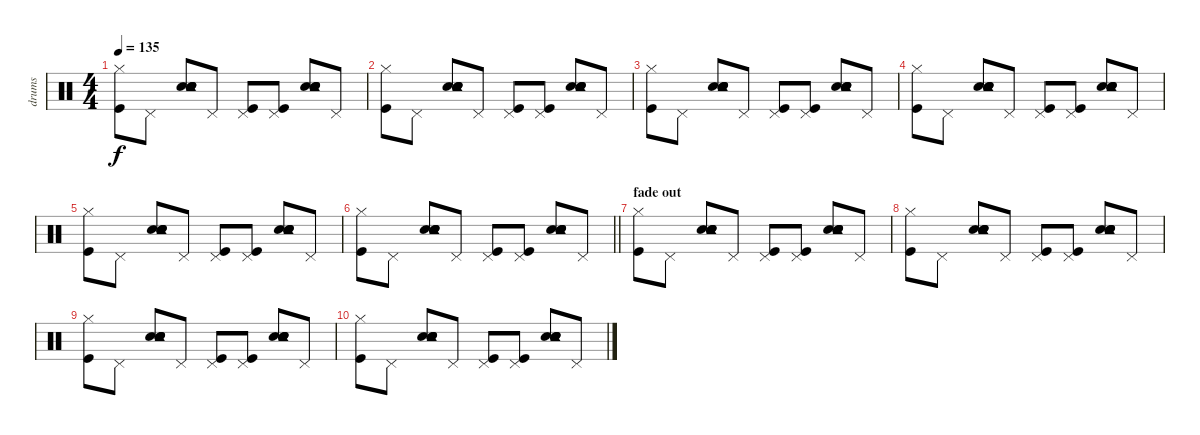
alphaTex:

\track ("drums" "drums") {instrument percussion}
\staff {score}
\articulation defaults
\ts (4 4)
\tempo 135
\clef neutral
\ks c
("Kick (hit)" "Hi-Hat (closed)").8{dy f} "Pedal Hi-Hat (hit)".8 ("Snare (hit) 2" "Snare (hit) 2" "Electric Snare (hit)" "Electric Snare (hit)" "Tambourine (hit)").8 "Pedal Hi-Hat (hit)".8 ("Kick (hit)" "Pedal Hi-Hat (hit)").8 ("Kick (hit)" "Pedal Hi-Hat (hit)").8 ("Snare (hit) 2" "Snare (hit) 2" "Electric Snare (hit)" "Electric Snare (hit)" "Tambourine (hit)").8 "Pedal Hi-Hat (hit)".8 |
("Kick (hit)" "Hi-Hat (closed)").8 "Pedal Hi-Hat (hit)".8 ("Snare (hit) 2" "Snare (hit) 2" "Electric Snare (hit)" "Electric Snare (hit)" "Tambourine (hit)").8 "Pedal Hi-Hat (hit)".8 ("Kick (hit)" "Pedal Hi-Hat (hit)").8 ("Kick (hit)" "Pedal Hi-Hat (hit)").8 ("Snare (hit) 2" "Snare (hit) 2" "Electric Snare (hit)" "Electric Snare (hit)" "Tambourine (hit)").8 "Pedal Hi-Hat (hit)".8 |
("Kick (hit)" "Hi-Hat (closed)").8 "Pedal Hi-Hat (hit)".8 ("Snare (hit) 2" "Snare (hit) 2" "Electric Snare (hit)" "Electric Snare (hit)" "Tambourine (hit)").8 "Pedal Hi-Hat (hit)".8 ("Kick (hit)" "Pedal Hi-Hat (hit)").8 ("Kick (hit)" "Pedal Hi-Hat (hit)").8 ("Snare (hit) 2" "Snare (hit) 2" "Electric Snare (hit)" "Electric Snare (hit)" "Tambourine (hit)").8 "Pedal Hi-Hat (hit)".8 |
("Kick (hit)" "Hi-Hat (closed)").8 "Pedal Hi-Hat (hit)".8 ("Snare (hit) 2" "Snare (hit) 2" "Electric Snare (hit)" "Electric Snare (hit)" "Tambourine (hit)").8 "Pedal Hi-Hat (hit)".8 ("Kick (hit)" "Pedal Hi-Hat (hit)").8 ("Kick (hit)" "Pedal Hi-Hat (hit)").8 ("Snare (hit) 2" "Snare (hit) 2" "Electric Snare (hit)" "Electric Snare (hit)" "Tambourine (hit)").8 "Pedal Hi-Hat (hit)".8 |
("Kick (hit)" "Hi-Hat (closed)").8 "Pedal Hi-Hat (hit)".8 ("Snare (hit) 2" "Snare (hit) 2" "Electric Snare (hit)" "Electric Snare (hit)" "Tambourine (hit)").8 "Pedal Hi-Hat (hit)".8 ("Kick (hit)" "Pedal Hi-Hat (hit)").8 ("Kick (hit)" "Pedal Hi-Hat (hit)").8 ("Snare (hit) 2" "Snare (hit) 2" "Electric Snare (hit)" "Electric Snare (hit)" "Tambourine (hit)").8 "Pedal Hi-Hat (hit)".8 |
\barLineRight lightlight
("Kick (hit)" "Hi-Hat (closed)").8 "Pedal Hi-Hat (hit)".8 ("Snare (hit) 2" "Snare (hit) 2" "Electric Snare (hit)" "Electric Snare (hit)" "Tambourine (hit)").8 "Pedal Hi-Hat (hit)".8 ("Kick (hit)" "Pedal Hi-Hat (hit)").8 ("Kick (hit)" "Pedal Hi-Hat (hit)").8 ("Snare (hit) 2" "Snare (hit) 2" "Electric Snare (hit)" "Electric Snare (hit)" "Tambourine (hit)").8 "Pedal Hi-Hat (hit)".8 |
\section ("" "fade out")
("Kick (hit)" "Hi-Hat (closed)").8 "Pedal Hi-Hat (hit)".8 ("Snare (hit) 2" "Snare (hit) 2" "Electric Snare (hit)" "Electric Snare (hit)" "Tambourine (hit)").8 "Pedal Hi-Hat (hit)".8 ("Kick (hit)" "Pedal Hi-Hat (hit)").8 ("Kick (hit)" "Pedal Hi-Hat (hit)").8 ("Snare (hit) 2" "Snare (hit) 2" "Electric Snare (hit)" "Electric Snare (hit)" "Tambourine (hit)").8 "Pedal Hi-Hat (hit)".8 |
("Kick (hit)" "Hi-Hat (closed)").8 "Pedal Hi-Hat (hit)".8 ("Snare (hit) 2" "Snare (hit) 2" "Electric Snare (hit)" "Electric Snare (hit)" "Tambourine (hit)").8 "Pedal Hi-Hat (hit)".8 ("Kick (hit)" "Pedal Hi-Hat (hit)").8 ("Kick (hit)" "Pedal Hi-Hat (hit)").8 ("Snare (hit) 2" "Snare (hit) 2" "Electric Snare (hit)" "Electric Snare (hit)" "Tambourine (hit)").8 "Pedal Hi-Hat (hit)".8 |
("Kick (hit)" "Hi-Hat (closed)").8 "Pedal Hi-Hat (hit)".8 ("Snare (hit) 2" "Snare (hit) 2" "Electric Snare (hit)" "Electric Snare (hit)" "Tambourine (hit)").8 "Pedal Hi-Hat (hit)".8 ("Kick (hit)" "Pedal Hi-Hat (hit)").8 ("Kick (hit)" "Pedal Hi-Hat (hit)").8 ("Snare (hit) 2" "Snare (hit) 2" "Electric Snare (hit)" "Electric Snare (hit)" "Tambourine (hit)").8 "Pedal Hi-Hat (hit)".8 |
("Kick (hit)" "Hi-Hat (closed)").8 "Pedal Hi-Hat (hit)".8 ("Snare (hit) 2" "Snare (hit) 2" "Electric Snare (hit)" "Electric Snare (hit)" "Tambourine (hit)").8 "Pedal Hi-Hat (hit)".8 ("Kick (hit)" "Pedal Hi-Hat (hit)").8 ("Kick (hit)" "Pedal Hi-Hat (hit)").8 ("Snare (hit) 2" "Snare (hit) 2" "Electric Snare (hit)" "Electric Snare (hit)" "Tambourine (hit)").8 "Pedal Hi-Hat (hit)".8
